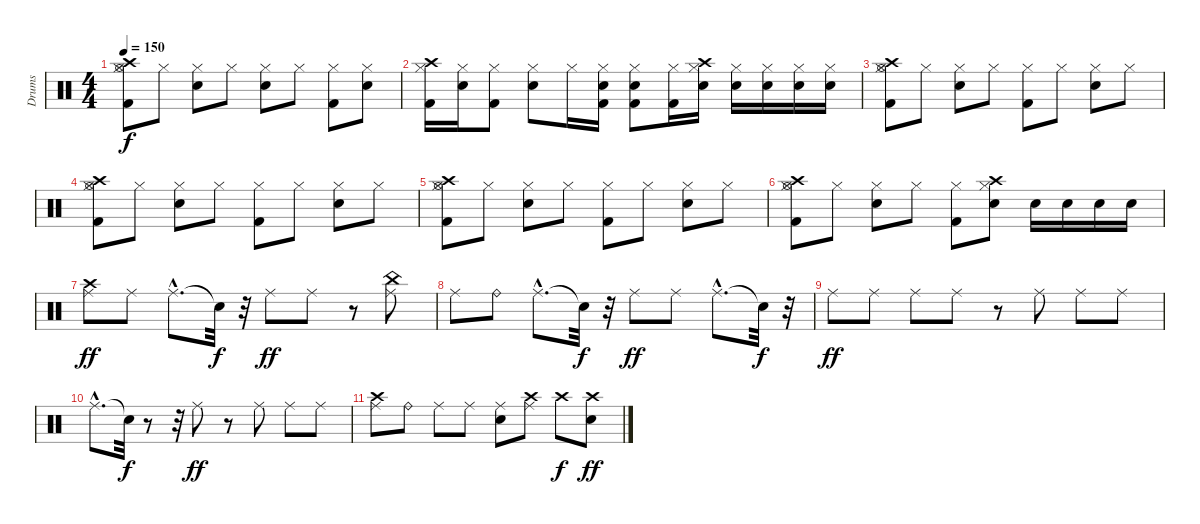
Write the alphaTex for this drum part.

\track ("Drums" "Drums") {instrument percussion}
\staff {score}
\articulation defaults
\ts (4 4)
\tempo 150
\clef neutral
\ks c
("Kick (hit) 2" "Hi-Hat (closed)" "Crash high (hit)" "Hi-Hat (open)").8{dy f} "Hi-Hat (closed)".8 ("Snare (hit) 2" "Hi-Hat (closed)").8 "Hi-Hat (closed)".8 ("Snare (hit) 2" "Hi-Hat (closed)").8 "Hi-Hat (closed)".8 ("Kick (hit) 2" "Hi-Hat (closed)").8 ("Snare (hit) 2" "Hi-Hat (closed)").8 |
("Kick (hit) 2" "Hi-Hat (closed)" "Crash high (hit)").16 ("Snare (hit) 2" "Hi-Hat (closed)").16 ("Kick (hit) 2" "Hi-Hat (closed)").8 ("Snare (hit) 2" "Hi-Hat (closed)").8 "Hi-Hat (closed)".16 ("Snare (hit) 2" "Hi-Hat (closed)" "Kick (hit) 2").16 ("Snare (hit) 2" "Hi-Hat (closed)" "Kick (hit) 2").8 ("Hi-Hat (closed)" "Kick (hit) 2").16 ("Snare (hit) 2" "Hi-Hat (closed)" "Crash high (hit)").16 ("Snare (hit) 2" "Hi-Hat (closed)").16 ("Snare (hit) 2" "Hi-Hat (closed)").16 ("Snare (hit) 2" "Hi-Hat (closed)").16 ("Snare (hit) 2" "Hi-Hat (closed)").16 |
("Kick (hit) 2" "Hi-Hat (closed)" "Crash high (hit)" "Hi-Hat (open)").8 "Hi-Hat (closed)".8 ("Snare (hit) 2" "Hi-Hat (closed)").8 "Hi-Hat (closed)".8 ("Kick (hit) 2" "Hi-Hat (closed)").8 "Hi-Hat (closed)".8 ("Snare (hit) 2" "Hi-Hat (closed)").8 "Hi-Hat (closed)".8 |
("Kick (hit) 2" "Hi-Hat (closed)" "Crash high (hit)" "Hi-Hat (open)").8 "Hi-Hat (closed)".8 ("Snare (hit) 2" "Hi-Hat (closed)").8 "Hi-Hat (closed)".8 ("Kick (hit) 2" "Hi-Hat (closed)").8 "Hi-Hat (closed)".8 ("Snare (hit) 2" "Hi-Hat (closed)").8 "Hi-Hat (closed)".8 |
("Kick (hit) 2" "Hi-Hat (closed)" "Crash high (hit)" "Hi-Hat (open)").8 "Hi-Hat (closed)".8 ("Snare (hit) 2" "Hi-Hat (closed)").8 "Hi-Hat (closed)".8 ("Kick (hit) 2" "Hi-Hat (closed)").8 "Hi-Hat (closed)".8 ("Snare (hit) 2" "Hi-Hat (closed)").8 "Hi-Hat (closed)".8 |
("Kick (hit) 2" "Hi-Hat (closed)" "Crash high (hit)" "Hi-Hat (open)").8 "Hi-Hat (closed)".8 ("Snare (hit) 2" "Hi-Hat (closed)").8 "Hi-Hat (closed)".8 ("Kick (hit) 2" "Hi-Hat (closed)").8 ("Snare (hit) 2" "Hi-Hat (closed)" "Crash high (hit)").8 "Snare (hit) 2".16 "Snare (hit) 2".16 "Snare (hit) 2".16 "Snare (hit) 2".16 |
("Crash high (hit)" "Ride (middle)").8{dy ff} "Ride (middle)".8 "Ride (middle)"{hac}.8{d} "Snare (hit)"{t}.32{dy f} r.32 "Ride (middle)".8{dy ff} "Ride (middle)".8 r.8 ("Ride (middle)" "China (hit)").8 |
"Ride (middle)".8 "Ride (bell)".8 "Ride (middle)"{hac}.8{d} "Snare (hit)"{t}.32{dy f} r.32 "Ride (middle)".8{dy ff} "Ride (middle)".8 "Ride (middle)"{hac}.8{d} "Snare (hit)"{t}.32{dy f} r.32 |
"Ride (middle)".8{dy ff} "Ride (middle)".8 "Ride (middle)".8 "Ride (middle)".8 r.8 "Ride (middle)".8 "Ride (middle)".8 "Ride (middle)".8 |
"Ride (middle)"{hac}.8{d} "Snare (hit)"{t}.32{dy f} r.8 r.32 "Ride (middle)".8{dy ff} r.8 "Ride (middle)".8 "Ride (middle)".8 "Ride (middle)".8 |
("Crash high (hit)" "Ride (middle)").8 "Ride (bell)".8 "Ride (middle)".8 "Ride (middle)".8 ("Ride (middle)" "Snare (hit) 2").8 ("Ride (middle)" "Crash high (hit)").8 "Crash high (hit)".8{dy f} ("Snare (hit) 2" "Crash high (hit)").8{dy ff}
